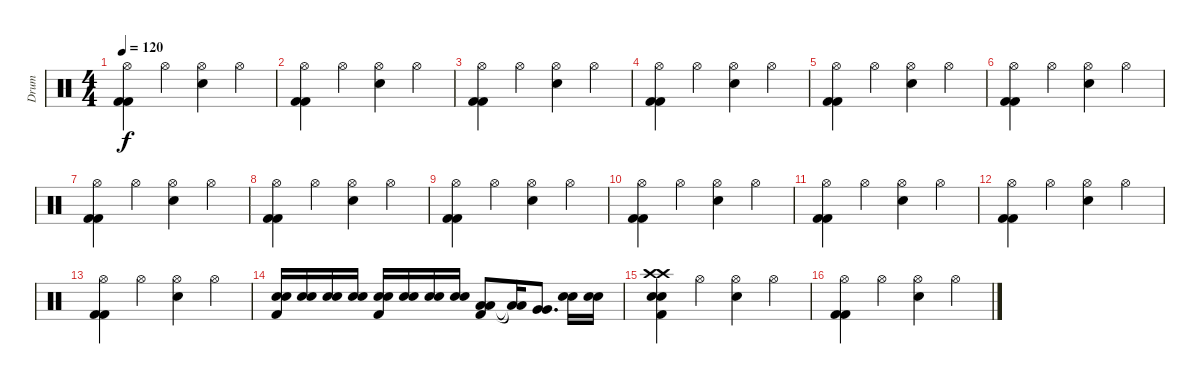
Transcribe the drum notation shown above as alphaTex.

\track ("Drum" "Drum") {instrument percussion}
\staff {score}
\articulation defaults
\ts (4 4)
\tempo 120
\clef neutral
\ks c
("Kick (hit) 2" "Kick (hit) 2" "Hi-Hat (open)").4{dy f} "Hi-Hat (open)".4 ("Snare (hit) 2" "Hi-Hat (open)").4 "Hi-Hat (open)".4 |
("Kick (hit) 2" "Kick (hit) 2" "Hi-Hat (open)").4 "Hi-Hat (open)".4 ("Snare (hit) 2" "Hi-Hat (open)").4 "Hi-Hat (open)".4 |
("Kick (hit) 2" "Kick (hit) 2" "Hi-Hat (open)").4 "Hi-Hat (open)".4 ("Snare (hit) 2" "Hi-Hat (open)").4 "Hi-Hat (open)".4 |
("Kick (hit) 2" "Kick (hit) 2" "Hi-Hat (open)").4 "Hi-Hat (open)".4 ("Snare (hit) 2" "Hi-Hat (open)").4 "Hi-Hat (open)".4 |
("Kick (hit) 2" "Kick (hit) 2" "Hi-Hat (open)").4 "Hi-Hat (open)".4 ("Snare (hit) 2" "Hi-Hat (open)").4 "Hi-Hat (open)".4 |
("Kick (hit) 2" "Kick (hit) 2" "Hi-Hat (open)").4 "Hi-Hat (open)".4 ("Snare (hit) 2" "Hi-Hat (open)").4 "Hi-Hat (open)".4 |
("Kick (hit) 2" "Kick (hit) 2" "Hi-Hat (open)").4 "Hi-Hat (open)".4 ("Snare (hit) 2" "Hi-Hat (open)").4 "Hi-Hat (open)".4 |
("Kick (hit) 2" "Kick (hit) 2" "Hi-Hat (open)").4 "Hi-Hat (open)".4 ("Snare (hit) 2" "Hi-Hat (open)").4 "Hi-Hat (open)".4 |
("Kick (hit) 2" "Kick (hit) 2" "Hi-Hat (open)").4 "Hi-Hat (open)".4 ("Snare (hit) 2" "Hi-Hat (open)").4 "Hi-Hat (open)".4 |
("Kick (hit) 2" "Kick (hit) 2" "Hi-Hat (open)").4 "Hi-Hat (open)".4 ("Snare (hit) 2" "Hi-Hat (open)").4 "Hi-Hat (open)".4 |
("Kick (hit) 2" "Kick (hit) 2" "Hi-Hat (open)").4 "Hi-Hat (open)".4 ("Snare (hit) 2" "Hi-Hat (open)").4 "Hi-Hat (open)".4 |
("Kick (hit) 2" "Kick (hit) 2" "Hi-Hat (open)").4 "Hi-Hat (open)".4 ("Snare (hit) 2" "Hi-Hat (open)").4 "Hi-Hat (open)".4 |
("Kick (hit) 2" "Kick (hit) 2" "Hi-Hat (open)").4 "Hi-Hat (open)".4 ("Snare (hit) 2" "Hi-Hat (open)").4 "Hi-Hat (open)".4 |
("Kick (hit) 2" "Snare (hit) 2" "Snare (hit) 2").16 ("Snare (hit) 2" "Snare (hit) 2").16 ("Snare (hit) 2" "Snare (hit) 2").16 ("Snare (hit) 2" "Snare (hit) 2").16 ("Kick (hit) 2" "Snare (hit) 2" "Snare (hit) 2").16 ("Snare (hit) 2" "Snare (hit) 2").16 ("Snare (hit) 2" "Snare (hit) 2").16 ("Snare (hit) 2" "Snare (hit) 2").16 ("Kick (hit) 2" "Low Tom (hit)" "Low Tom (hit)").8 ("Low Tom (hit)"{t} "Low Tom (hit)"{t}).16 ("Very Low Tom (hit)" "Very Low Tom (hit)").8{d} ("Snare (hit) 2" "Snare (hit) 2").16 ("Snare (hit) 2" "Snare (hit) 2").16 |
("Kick (hit) 2" "Crash high (hit)" "Crash high (hit)" "Snare (hit) 2" "Snare (hit) 2").4 "Hi-Hat (open)".4 ("Snare (hit) 2" "Hi-Hat (open)").4 "Hi-Hat (open)".4 |
("Kick (hit) 2" "Kick (hit) 2" "Hi-Hat (open)").4 "Hi-Hat (open)".4 ("Snare (hit) 2" "Hi-Hat (open)").4 "Hi-Hat (open)".4
